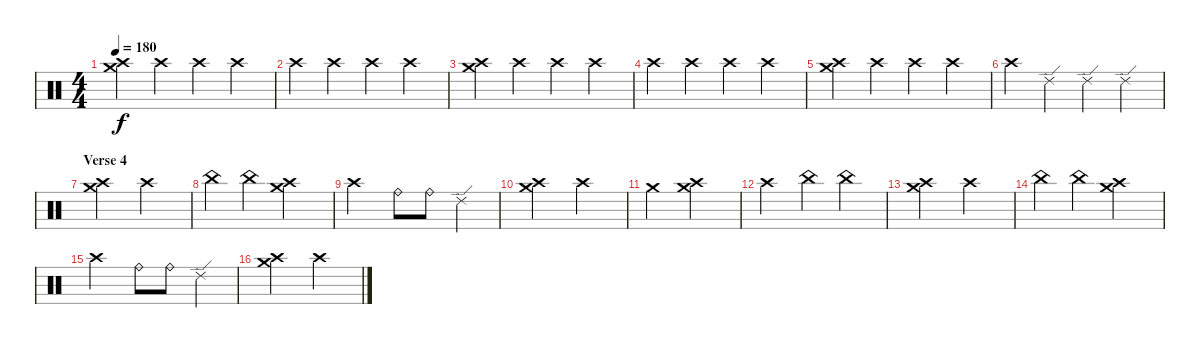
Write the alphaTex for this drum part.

\track "" {instrument percussion}
\staff {score}
\articulation defaults
\ts (4 4)
\tempo 180
\clef neutral
\ks c
("Crash medium (hit)" "Crash high (hit)").4{dy f} "Crash high (hit)".4 "Crash high (hit)".4 "Crash high (hit)".4 |
"Crash high (hit)".4 "Crash high (hit)".4 "Crash high (hit)".4 "Crash high (hit)".4 |
("Crash medium (hit)" "Crash high (hit)").4 "Crash high (hit)".4 "Crash high (hit)".4 "Crash high (hit)".4 |
"Crash high (hit)".4 "Crash high (hit)".4 "Crash high (hit)".4 "Crash high (hit)".4 |
("Crash medium (hit)" "Crash high (hit)").4 "Crash high (hit)".4 "Crash high (hit)".4 "Crash high (hit)".4 |
"Crash high (hit)".4 "Ride (edge) 2".4 "Ride (edge) 2".4 "Ride (edge) 2".4 |
\section ("" "Verse 4")
("Crash medium (hit)" "Crash high (hit)").2 "Crash high (hit)".2 |
"China (hit)".4 "China (hit)".4 ("Crash medium (hit)" "Crash high (hit)").2 |
"Crash high (hit)".2 "Ride (bell)".8 "Ride (bell)".8 "Ride (edge) 2".4 |
("Crash medium (hit)" "Crash high (hit)").2 "Crash high (hit)".2 |
"Crash medium (hit)".2 ("Crash medium (hit)" "Crash high (hit)").2 |
"Crash high (hit)".2 "China (hit)".4 "China (hit)".4 |
("Crash medium (hit)" "Crash high (hit)").2 "Crash high (hit)".2 |
"China (hit)".4 "China (hit)".4 ("Crash medium (hit)" "Crash high (hit)").2 |
"Crash high (hit)".2 "Ride (bell)".8 "Ride (bell)".8 "Ride (edge) 2".4 |
("Crash medium (hit)" "Crash high (hit)").2 "Crash high (hit)".2
